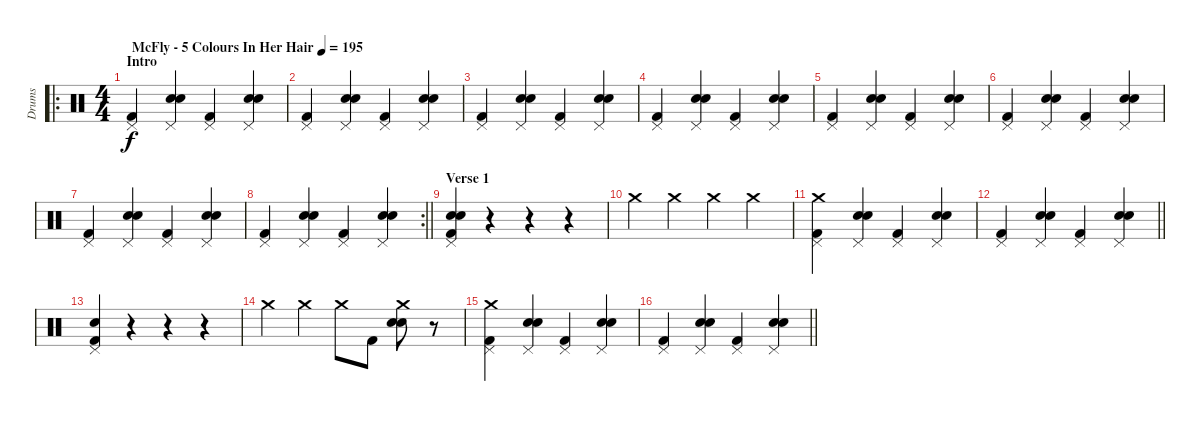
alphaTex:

\track ("Drums" "Drums") {instrument percussion}
\staff {score}
\articulation defaults
\ro
\ts (4 4)
\section ("" "Intro")
\tempo (195 "McFly - 5 Colours In Her Hair")
\clef neutral
\ks c
("Kick (hit) 2" "Pedal Hi-Hat (hit)").4{dy f} ("Snare (hit) 2" "Electric Snare (hit)" "Pedal Hi-Hat (hit)").4 ("Kick (hit) 2" "Pedal Hi-Hat (hit)").4 ("Snare (hit) 2" "Electric Snare (hit)" "Pedal Hi-Hat (hit)").4 |
("Kick (hit) 2" "Pedal Hi-Hat (hit)").4 ("Snare (hit) 2" "Electric Snare (hit)" "Pedal Hi-Hat (hit)").4 ("Kick (hit) 2" "Pedal Hi-Hat (hit)").4 ("Snare (hit) 2" "Electric Snare (hit)" "Pedal Hi-Hat (hit)").4 |
("Kick (hit) 2" "Pedal Hi-Hat (hit)").4 ("Snare (hit) 2" "Electric Snare (hit)" "Pedal Hi-Hat (hit)").4 ("Kick (hit) 2" "Pedal Hi-Hat (hit)").4 ("Snare (hit) 2" "Electric Snare (hit)" "Pedal Hi-Hat (hit)").4 |
("Kick (hit) 2" "Pedal Hi-Hat (hit)").4 ("Snare (hit) 2" "Electric Snare (hit)" "Pedal Hi-Hat (hit)").4 ("Kick (hit) 2" "Pedal Hi-Hat (hit)").4 ("Snare (hit) 2" "Electric Snare (hit)" "Pedal Hi-Hat (hit)").4 |
("Kick (hit) 2" "Pedal Hi-Hat (hit)").4 ("Snare (hit) 2" "Electric Snare (hit)" "Pedal Hi-Hat (hit)").4 ("Kick (hit) 2" "Pedal Hi-Hat (hit)").4 ("Snare (hit) 2" "Electric Snare (hit)" "Pedal Hi-Hat (hit)").4 |
("Kick (hit) 2" "Pedal Hi-Hat (hit)").4 ("Snare (hit) 2" "Electric Snare (hit)" "Pedal Hi-Hat (hit)").4 ("Kick (hit) 2" "Pedal Hi-Hat (hit)").4 ("Snare (hit) 2" "Electric Snare (hit)" "Pedal Hi-Hat (hit)").4 |
("Kick (hit) 2" "Pedal Hi-Hat (hit)").4 ("Snare (hit) 2" "Electric Snare (hit)" "Pedal Hi-Hat (hit)").4 ("Kick (hit) 2" "Pedal Hi-Hat (hit)").4 ("Snare (hit) 2" "Electric Snare (hit)" "Pedal Hi-Hat (hit)").4 |
\rc 2
\barLineRight lightlight
("Kick (hit) 2" "Pedal Hi-Hat (hit)").4 ("Snare (hit) 2" "Electric Snare (hit)" "Pedal Hi-Hat (hit)").4 ("Kick (hit) 2" "Pedal Hi-Hat (hit)").4 ("Snare (hit) 2" "Electric Snare (hit)" "Pedal Hi-Hat (hit)").4 |
\section ("" "Verse 1")
("Kick (hit) 2" "Electric Snare (hit)" "Snare (hit) 2" "Pedal Hi-Hat (hit)").4 r.4 r.4 r.4 |
"Crash medium (hit)".4 "Crash medium (hit)".4 "Crash medium (hit)".4 "Crash medium (hit)".4 |
("Kick (hit) 2" "Pedal Hi-Hat (hit)" "Crash medium (hit)").4 ("Snare (hit) 2" "Electric Snare (hit)" "Pedal Hi-Hat (hit)").4 ("Kick (hit) 2" "Pedal Hi-Hat (hit)").4 ("Snare (hit) 2" "Electric Snare (hit)" "Pedal Hi-Hat (hit)").4 |
\barLineRight lightlight
("Kick (hit) 2" "Pedal Hi-Hat (hit)").4 ("Snare (hit) 2" "Electric Snare (hit)" "Pedal Hi-Hat (hit)").4 ("Kick (hit) 2" "Pedal Hi-Hat (hit)").4 ("Snare (hit) 2" "Electric Snare (hit)" "Pedal Hi-Hat (hit)").4 |
("Kick (hit) 2" "Electric Snare (hit)" "Pedal Hi-Hat (hit)").4 r.4 r.4 r.4 |
"Crash medium (hit)".4 "Crash medium (hit)".4 "Crash medium (hit)".8 "Kick (hit) 2".8 ("Crash medium (hit)" "Electric Snare (hit)" "Snare (hit) 2").8 r.8 |
("Kick (hit) 2" "Pedal Hi-Hat (hit)" "Crash medium (hit)").4 ("Snare (hit) 2" "Electric Snare (hit)" "Pedal Hi-Hat (hit)").4 ("Kick (hit) 2" "Pedal Hi-Hat (hit)").4 ("Snare (hit) 2" "Electric Snare (hit)" "Pedal Hi-Hat (hit)").4 |
\barLineRight lightlight
("Kick (hit) 2" "Pedal Hi-Hat (hit)").4 ("Snare (hit) 2" "Electric Snare (hit)" "Pedal Hi-Hat (hit)").4 ("Kick (hit) 2" "Pedal Hi-Hat (hit)").4 ("Snare (hit) 2" "Electric Snare (hit)" "Pedal Hi-Hat (hit)").4
